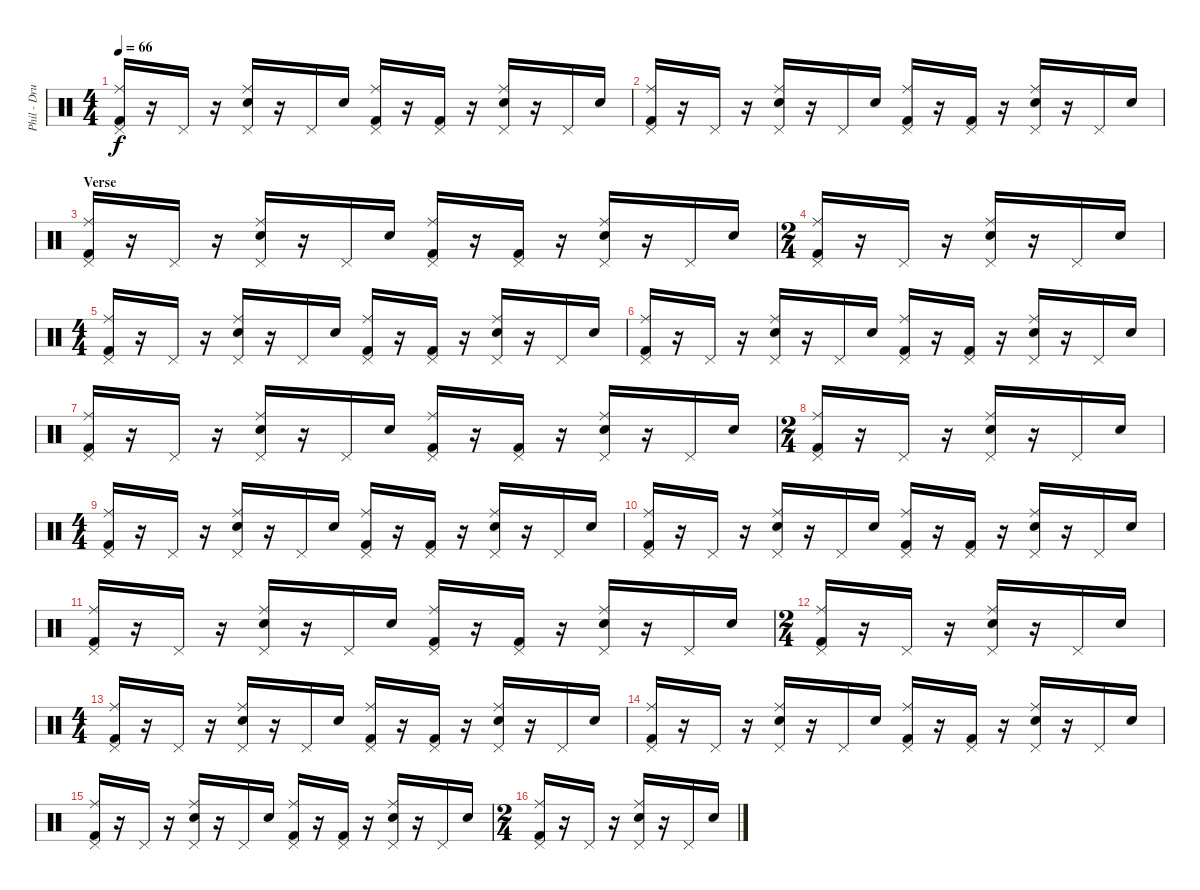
\track ("Phil - Drums" "Phil - Dru") {instrument percussion}
\staff {score}
\articulation defaults
\ts (4 4)
\tempo 66
\clef neutral
\ks c
("Ride (middle)" "Kick (hit) 2" "Pedal Hi-Hat (hit)").16{dy f} r.16 "Pedal Hi-Hat (hit)".16 r.16 ("Ride (middle)" "Electric Snare (hit)" "Pedal Hi-Hat (hit)").16 r.16 "Pedal Hi-Hat (hit)".16 "Electric Snare (hit)".16 ("Ride (middle)" "Kick (hit) 2" "Pedal Hi-Hat (hit)").16 r.16 ("Kick (hit) 2" "Pedal Hi-Hat (hit)").16 r.16 ("Ride (middle)" "Electric Snare (hit)" "Pedal Hi-Hat (hit)").16 r.16 "Pedal Hi-Hat (hit)".16 "Electric Snare (hit)".16 |
("Ride (middle)" "Kick (hit) 2" "Pedal Hi-Hat (hit)").16 r.16 "Pedal Hi-Hat (hit)".16 r.16 ("Ride (middle)" "Electric Snare (hit)" "Pedal Hi-Hat (hit)").16 r.16 "Pedal Hi-Hat (hit)".16 "Electric Snare (hit)".16 ("Ride (middle)" "Kick (hit) 2" "Pedal Hi-Hat (hit)").16 r.16 ("Kick (hit) 2" "Pedal Hi-Hat (hit)").16 r.16 ("Ride (middle)" "Electric Snare (hit)" "Pedal Hi-Hat (hit)").16 r.16 "Pedal Hi-Hat (hit)".16 "Electric Snare (hit)".16 |
\section ("" "Verse")
("Ride (middle)" "Kick (hit) 2" "Pedal Hi-Hat (hit)").16 r.16 "Pedal Hi-Hat (hit)".16 r.16 ("Ride (middle)" "Electric Snare (hit)" "Pedal Hi-Hat (hit)").16 r.16 "Pedal Hi-Hat (hit)".16 "Electric Snare (hit)".16 ("Ride (middle)" "Kick (hit) 2" "Pedal Hi-Hat (hit)").16 r.16 ("Kick (hit) 2" "Pedal Hi-Hat (hit)").16 r.16 ("Ride (middle)" "Electric Snare (hit)" "Pedal Hi-Hat (hit)").16 r.16 "Pedal Hi-Hat (hit)".16 "Electric Snare (hit)".16 |
\ts (2 4)
("Ride (middle)" "Kick (hit) 2" "Pedal Hi-Hat (hit)").16 r.16 "Pedal Hi-Hat (hit)".16 r.16 ("Ride (middle)" "Electric Snare (hit)" "Pedal Hi-Hat (hit)").16 r.16 "Pedal Hi-Hat (hit)".16 "Electric Snare (hit)".16 |
\ts (4 4)
("Ride (middle)" "Kick (hit) 2" "Pedal Hi-Hat (hit)").16 r.16 "Pedal Hi-Hat (hit)".16 r.16 ("Ride (middle)" "Electric Snare (hit)" "Pedal Hi-Hat (hit)").16 r.16 "Pedal Hi-Hat (hit)".16 "Electric Snare (hit)".16 ("Ride (middle)" "Kick (hit) 2" "Pedal Hi-Hat (hit)").16 r.16 ("Kick (hit) 2" "Pedal Hi-Hat (hit)").16 r.16 ("Ride (middle)" "Electric Snare (hit)" "Pedal Hi-Hat (hit)").16 r.16 "Pedal Hi-Hat (hit)".16 "Electric Snare (hit)".16 |
("Ride (middle)" "Kick (hit) 2" "Pedal Hi-Hat (hit)").16 r.16 "Pedal Hi-Hat (hit)".16 r.16 ("Ride (middle)" "Electric Snare (hit)" "Pedal Hi-Hat (hit)").16 r.16 "Pedal Hi-Hat (hit)".16 "Electric Snare (hit)".16 ("Ride (middle)" "Kick (hit) 2" "Pedal Hi-Hat (hit)").16 r.16 ("Kick (hit) 2" "Pedal Hi-Hat (hit)").16 r.16 ("Ride (middle)" "Electric Snare (hit)" "Pedal Hi-Hat (hit)").16 r.16 "Pedal Hi-Hat (hit)".16 "Electric Snare (hit)".16 |
("Ride (middle)" "Kick (hit) 2" "Pedal Hi-Hat (hit)").16 r.16 "Pedal Hi-Hat (hit)".16 r.16 ("Ride (middle)" "Electric Snare (hit)" "Pedal Hi-Hat (hit)").16 r.16 "Pedal Hi-Hat (hit)".16 "Electric Snare (hit)".16 ("Ride (middle)" "Kick (hit) 2" "Pedal Hi-Hat (hit)").16 r.16 ("Kick (hit) 2" "Pedal Hi-Hat (hit)").16 r.16 ("Ride (middle)" "Electric Snare (hit)" "Pedal Hi-Hat (hit)").16 r.16 "Pedal Hi-Hat (hit)".16 "Electric Snare (hit)".16 |
\ts (2 4)
("Ride (middle)" "Kick (hit) 2" "Pedal Hi-Hat (hit)").16 r.16 "Pedal Hi-Hat (hit)".16 r.16 ("Ride (middle)" "Electric Snare (hit)" "Pedal Hi-Hat (hit)").16 r.16 "Pedal Hi-Hat (hit)".16 "Electric Snare (hit)".16 |
\ts (4 4)
("Ride (middle)" "Kick (hit) 2" "Pedal Hi-Hat (hit)").16 r.16 "Pedal Hi-Hat (hit)".16 r.16 ("Ride (middle)" "Electric Snare (hit)" "Pedal Hi-Hat (hit)").16 r.16 "Pedal Hi-Hat (hit)".16 "Electric Snare (hit)".16 ("Ride (middle)" "Kick (hit) 2" "Pedal Hi-Hat (hit)").16 r.16 ("Kick (hit) 2" "Pedal Hi-Hat (hit)").16 r.16 ("Ride (middle)" "Electric Snare (hit)" "Pedal Hi-Hat (hit)").16 r.16 "Pedal Hi-Hat (hit)".16 "Electric Snare (hit)".16 |
("Ride (middle)" "Kick (hit) 2" "Pedal Hi-Hat (hit)").16 r.16 "Pedal Hi-Hat (hit)".16 r.16 ("Ride (middle)" "Electric Snare (hit)" "Pedal Hi-Hat (hit)").16 r.16 "Pedal Hi-Hat (hit)".16 "Electric Snare (hit)".16 ("Ride (middle)" "Kick (hit) 2" "Pedal Hi-Hat (hit)").16 r.16 ("Kick (hit) 2" "Pedal Hi-Hat (hit)").16 r.16 ("Ride (middle)" "Electric Snare (hit)" "Pedal Hi-Hat (hit)").16 r.16 "Pedal Hi-Hat (hit)".16 "Electric Snare (hit)".16 |
("Ride (middle)" "Kick (hit) 2" "Pedal Hi-Hat (hit)").16 r.16 "Pedal Hi-Hat (hit)".16 r.16 ("Ride (middle)" "Electric Snare (hit)" "Pedal Hi-Hat (hit)").16 r.16 "Pedal Hi-Hat (hit)".16 "Electric Snare (hit)".16 ("Ride (middle)" "Kick (hit) 2" "Pedal Hi-Hat (hit)").16 r.16 ("Kick (hit) 2" "Pedal Hi-Hat (hit)").16 r.16 ("Ride (middle)" "Electric Snare (hit)" "Pedal Hi-Hat (hit)").16 r.16 "Pedal Hi-Hat (hit)".16 "Electric Snare (hit)".16 |
\ts (2 4)
("Ride (middle)" "Kick (hit) 2" "Pedal Hi-Hat (hit)").16 r.16 "Pedal Hi-Hat (hit)".16 r.16 ("Ride (middle)" "Electric Snare (hit)" "Pedal Hi-Hat (hit)").16 r.16 "Pedal Hi-Hat (hit)".16 "Electric Snare (hit)".16 |
\ts (4 4)
("Ride (middle)" "Kick (hit) 2" "Pedal Hi-Hat (hit)").16 r.16 "Pedal Hi-Hat (hit)".16 r.16 ("Ride (middle)" "Electric Snare (hit)" "Pedal Hi-Hat (hit)").16 r.16 "Pedal Hi-Hat (hit)".16 "Electric Snare (hit)".16 ("Ride (middle)" "Kick (hit) 2" "Pedal Hi-Hat (hit)").16 r.16 ("Kick (hit) 2" "Pedal Hi-Hat (hit)").16 r.16 ("Ride (middle)" "Electric Snare (hit)" "Pedal Hi-Hat (hit)").16 r.16 "Pedal Hi-Hat (hit)".16 "Electric Snare (hit)".16 |
("Ride (middle)" "Kick (hit) 2" "Pedal Hi-Hat (hit)").16 r.16 "Pedal Hi-Hat (hit)".16 r.16 ("Ride (middle)" "Electric Snare (hit)" "Pedal Hi-Hat (hit)").16 r.16 "Pedal Hi-Hat (hit)".16 "Electric Snare (hit)".16 ("Ride (middle)" "Kick (hit) 2" "Pedal Hi-Hat (hit)").16 r.16 ("Kick (hit) 2" "Pedal Hi-Hat (hit)").16 r.16 ("Ride (middle)" "Electric Snare (hit)" "Pedal Hi-Hat (hit)").16 r.16 "Pedal Hi-Hat (hit)".16 "Electric Snare (hit)".16 |
("Ride (middle)" "Kick (hit) 2" "Pedal Hi-Hat (hit)").16 r.16 "Pedal Hi-Hat (hit)".16 r.16 ("Ride (middle)" "Electric Snare (hit)" "Pedal Hi-Hat (hit)").16 r.16 "Pedal Hi-Hat (hit)".16 "Electric Snare (hit)".16 ("Ride (middle)" "Kick (hit) 2" "Pedal Hi-Hat (hit)").16 r.16 ("Kick (hit) 2" "Pedal Hi-Hat (hit)").16 r.16 ("Ride (middle)" "Electric Snare (hit)" "Pedal Hi-Hat (hit)").16 r.16 "Pedal Hi-Hat (hit)".16 "Electric Snare (hit)".16 |
\ts (2 4)
("Ride (middle)" "Kick (hit) 2" "Pedal Hi-Hat (hit)").16 r.16 "Pedal Hi-Hat (hit)".16 r.16 ("Ride (middle)" "Electric Snare (hit)" "Pedal Hi-Hat (hit)").16 r.16 "Pedal Hi-Hat (hit)".16 "Electric Snare (hit)".16
